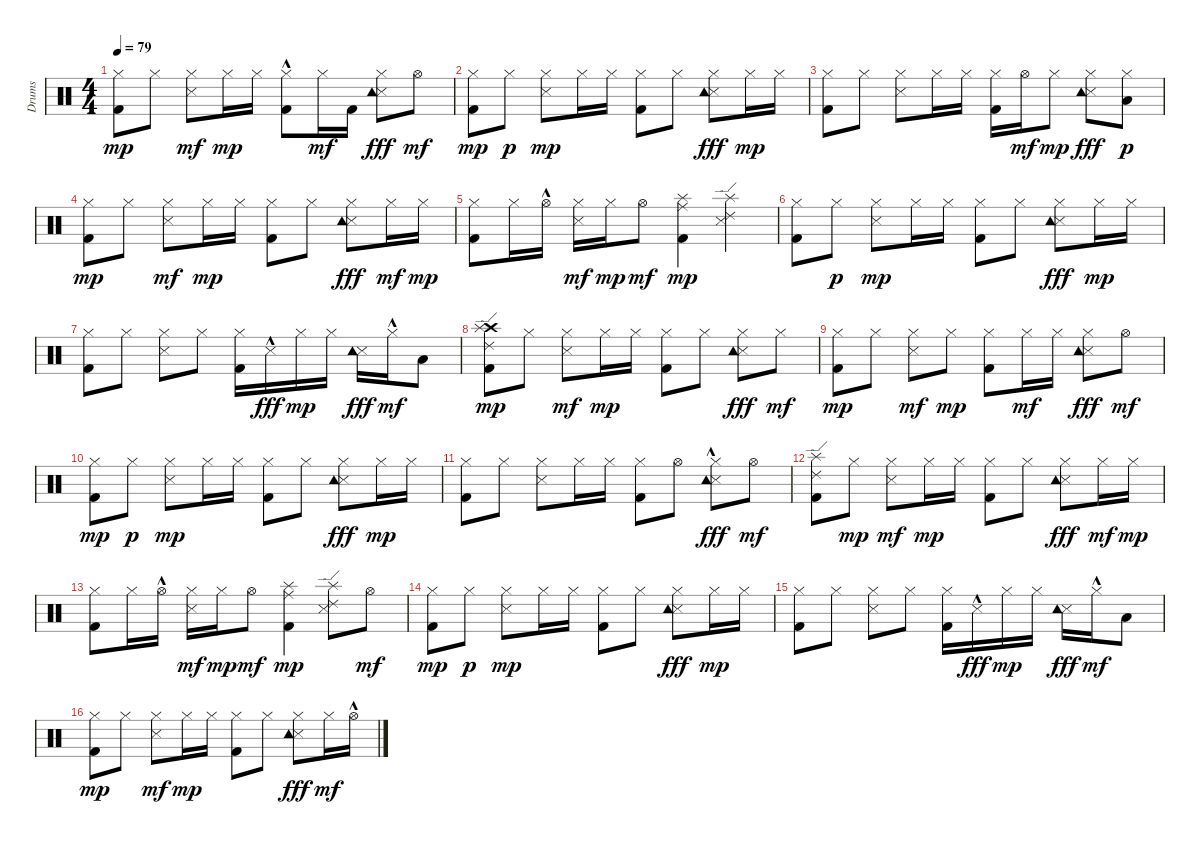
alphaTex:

\track ("Drums" "Drums") {instrument percussion}
\staff {score}
\articulation defaults
\ts (4 4)
\tempo 79
\clef neutral
\ks c
("Kick (hit) 2" "Hi-Hat (closed)").8{dy mp} "Hi-Hat (closed)".8 ("Snare (side stick) 3" "Hi-Hat (closed)").8{dy mf} "Hi-Hat (closed)".16{dy mp} "Hi-Hat (closed)".16 ("Kick (hit) 2"{hac} "Hi-Hat (closed)").8 "Hi-Hat (closed)".16{dy mf} "Kick (hit) 2".16 ("Snare (side stick) 3" "Hi-Hat (closed)" "Tambourine (hit)").8{dy fff} "Hi-Hat (open)".8{dy mf} |
("Kick (hit) 2" "Hi-Hat (closed)").8{dy mp} "Hi-Hat (closed)".8{dy p} ("Snare (side stick) 3" "Hi-Hat (closed)").8{dy mp} "Hi-Hat (closed)".16 "Hi-Hat (closed)".16 ("Kick (hit) 2" "Hi-Hat (closed)").8 "Hi-Hat (closed)".8 ("Snare (side stick) 3" "Hi-Hat (closed)" "Tambourine (hit)").8{dy fff} "Hi-Hat (closed)".16{dy mp} "Hi-Hat (closed)".16 |
("Kick (hit) 2" "Hi-Hat (closed)").8 "Hi-Hat (closed)".8 ("Snare (side stick) 3" "Hi-Hat (closed)").8 "Hi-Hat (closed)".16 "Hi-Hat (closed)".16 ("Kick (hit) 2" "Hi-Hat (closed)").16 "Hi-Hat (open)".16{dy mf} "Hi-Hat (closed)".8{dy mp} ("Snare (side stick) 3" "Hi-Hat (closed)" "Tambourine (hit)").8{dy fff} ("Low Floor Tom (hit)" "Hi-Hat (closed)").8{dy p} |
("Kick (hit) 2" "Hi-Hat (closed)").8{dy mp} "Hi-Hat (closed)".8 ("Snare (side stick) 3" "Hi-Hat (closed)").8{dy mf} "Hi-Hat (closed)".16{dy mp} "Hi-Hat (closed)".16 ("Kick (hit) 2" "Hi-Hat (closed)").8 "Hi-Hat (closed)".8 ("Snare (side stick) 3" "Hi-Hat (closed)" "Tambourine (hit)").8{dy fff} "Hi-Hat (closed)".16{dy mf} "Hi-Hat (closed)".16{dy mp} |
("Kick (hit) 2" "Hi-Hat (closed)").8 "Hi-Hat (closed)".16 "Hi-Hat (open)"{hac}.16 ("Snare (side stick) 3" "Hi-Hat (closed)").16{dy mf} "Hi-Hat (closed)".16{dy mp} "Hi-Hat (open)".8{dy mf} ("Kick (hit) 2" "Ride (middle)" "Splash (hit)").4{dy mp} ("Snare (side stick) 3" "Splash (hit)" "Ride (edge) 2").4 |
("Kick (hit) 2" "Hi-Hat (closed)").8 "Hi-Hat (closed)".8{dy p} ("Snare (side stick) 3" "Hi-Hat (closed)").8{dy mp} "Hi-Hat (closed)".16 "Hi-Hat (closed)".16 ("Kick (hit) 2" "Hi-Hat (closed)").8 "Hi-Hat (closed)".8 ("Snare (side stick) 3" "Hi-Hat (closed)" "Tambourine (hit)").8{dy fff} "Hi-Hat (closed)".16{dy mp} "Hi-Hat (closed)".16 |
("Kick (hit) 2" "Hi-Hat (closed)").8 "Hi-Hat (closed)".8 ("Snare (side stick) 3" "Hi-Hat (closed)").8 "Hi-Hat (closed)".8 ("Kick (hit) 2" "Hi-Hat (closed)").16 "Snare (side stick) 3"{hac}.16{dy fff} "Hi-Hat (closed)".16{dy mp} "Hi-Hat (closed)".16 ("Snare (side stick) 3" "Tambourine (hit)").16{dy fff} "Hi-Hat (closed)"{hac}.16{dy mf} "Low Floor Tom (hit)".8 |
("Kick (hit) 2" "Crash high (hit)" "Splash (hit)" "Ride (edge) 2").8{dy mp} "Hi-Hat (closed)".8 ("Snare (side stick) 3" "Hi-Hat (closed)").8{dy mf} "Hi-Hat (closed)".16{dy mp} "Hi-Hat (closed)".16 ("Kick (hit) 2" "Hi-Hat (closed)").8 "Hi-Hat (closed)".8 ("Snare (side stick) 3" "Hi-Hat (closed)" "Tambourine (hit)").8{dy fff} "Hi-Hat (closed)".8{dy mf} |
("Kick (hit) 2" "Hi-Hat (closed)").8{dy mp} "Hi-Hat (closed)".8 ("Snare (side stick) 3" "Hi-Hat (closed)").8{dy mf} "Hi-Hat (closed)".8{dy mp} ("Kick (hit) 2" "Hi-Hat (closed)").8 "Hi-Hat (closed)".16{dy mf} "Hi-Hat (closed)".16 ("Snare (side stick) 3" "Hi-Hat (closed)" "Tambourine (hit)").8{dy fff} "Hi-Hat (open)".8{dy mf} |
("Kick (hit) 2" "Hi-Hat (closed)").8{dy mp} "Hi-Hat (closed)".8{dy p} ("Snare (side stick) 3" "Hi-Hat (closed)").8{dy mp} "Hi-Hat (closed)".16 "Hi-Hat (closed)".16 ("Kick (hit) 2" "Hi-Hat (closed)").8 "Hi-Hat (closed)".8 ("Snare (side stick) 3" "Hi-Hat (closed)" "Tambourine (hit)").8{dy fff} "Hi-Hat (closed)".16{dy mp} "Hi-Hat (closed)".16 |
("Kick (hit) 2" "Hi-Hat (closed)").8 "Hi-Hat (closed)".8 ("Snare (side stick) 3" "Hi-Hat (closed)").8 "Hi-Hat (closed)".16 "Hi-Hat (closed)".16 ("Kick (hit) 2" "Hi-Hat (closed)").8 "Hi-Hat (open)".8 ("Snare (side stick) 3" "Hi-Hat (closed)"{hac} "Tambourine (hit)").8{dy fff} "Hi-Hat (open)".8{dy mf} |
("Kick (hit) 2" "Splash (hit)" "Ride (edge) 2").8 "Hi-Hat (closed)".8{dy mp} ("Snare (side stick) 3" "Hi-Hat (closed)").8{dy mf} "Hi-Hat (closed)".16{dy mp} "Hi-Hat (closed)".16 ("Kick (hit) 2" "Hi-Hat (closed)").8 "Hi-Hat (closed)".8 ("Snare (side stick) 3" "Hi-Hat (closed)" "Tambourine (hit)").8{dy fff} "Hi-Hat (closed)".16{dy mf} "Hi-Hat (closed)".16{dy mp} |
("Kick (hit) 2" "Hi-Hat (closed)").8 "Hi-Hat (closed)".16 "Hi-Hat (open)"{hac}.16 ("Snare (side stick) 3" "Hi-Hat (closed)").16{dy mf} "Hi-Hat (closed)".16{dy mp} "Hi-Hat (open)".8{dy mf} ("Kick (hit) 2" "Ride (middle)" "Splash (hit)").4{dy mp} ("Snare (side stick) 3" "Splash (hit)" "Ride (edge) 2").8 "Hi-Hat (open)".8{dy mf} |
("Kick (hit) 2" "Hi-Hat (closed)").8{dy mp} "Hi-Hat (closed)".8{dy p} ("Snare (side stick) 3" "Hi-Hat (closed)").8{dy mp} "Hi-Hat (closed)".16 "Hi-Hat (closed)".16 ("Kick (hit) 2" "Hi-Hat (closed)").8 "Hi-Hat (closed)".8 ("Snare (side stick) 3" "Hi-Hat (closed)" "Tambourine (hit)").8{dy fff} "Hi-Hat (closed)".16{dy mp} "Hi-Hat (closed)".16 |
("Kick (hit) 2" "Hi-Hat (closed)").8 "Hi-Hat (closed)".8 ("Snare (side stick) 3" "Hi-Hat (closed)").8 "Hi-Hat (closed)".8 ("Kick (hit) 2" "Hi-Hat (closed)").16 "Snare (side stick) 3"{hac}.16{dy fff} "Hi-Hat (closed)".16{dy mp} "Hi-Hat (closed)".16 ("Snare (side stick) 3" "Tambourine (hit)").16{dy fff} "Hi-Hat (closed)"{hac}.16{dy mf} "Low Floor Tom (hit)".8 |
("Kick (hit) 2" "Hi-Hat (closed)").8{dy mp} "Hi-Hat (closed)".8 ("Snare (side stick) 3" "Hi-Hat (closed)").8{dy mf} "Hi-Hat (closed)".16{dy mp} "Hi-Hat (closed)".16 ("Kick (hit) 2" "Hi-Hat (closed)").8 "Hi-Hat (closed)".8 ("Snare (side stick) 3" "Hi-Hat (closed)" "Tambourine (hit)").8{dy fff} "Hi-Hat (closed)".16{dy mf} "Hi-Hat (open)"{hac}.16
